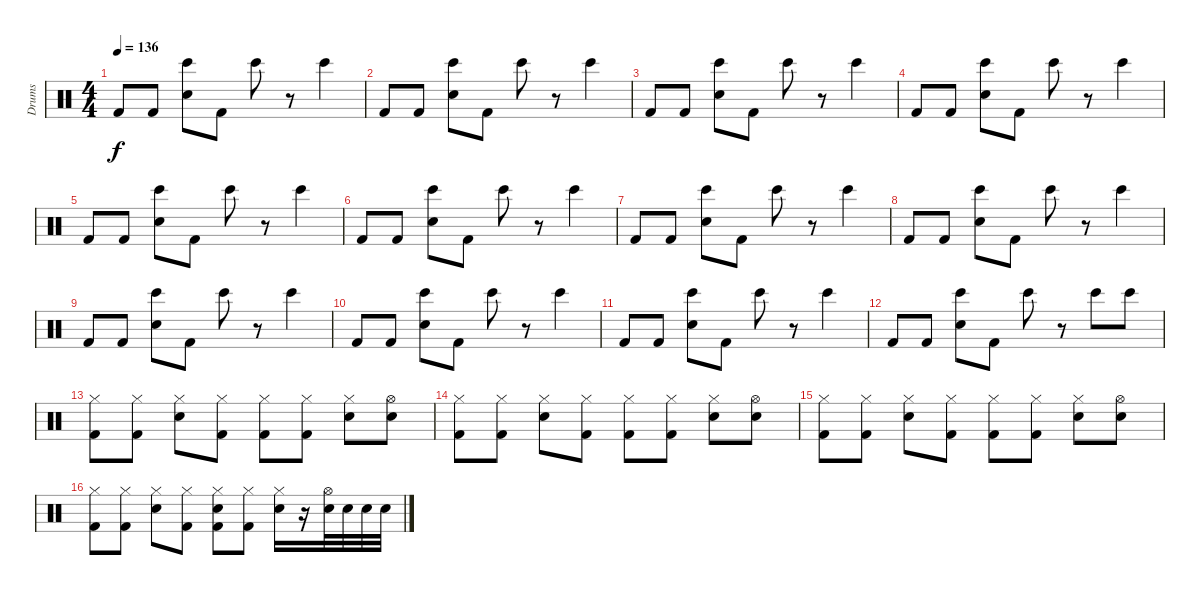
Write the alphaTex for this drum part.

\track ("Drums" "Drums") {instrument percussion}
\staff {score}
\articulation defaults
\ts (4 4)
\tempo 136
\clef neutral
\ks c "Kick (hit) 2".8{dy f} "Kick (hit) 2".8
("Bongo High (hit)" "Electric Snare (hit)").8 "Kick (hit) 2".8 "Bongo High (hit)".8 r.8 "Bongo High (hit)".4 |
"Kick (hit) 2".8 "Kick (hit) 2".8 ("Bongo High (hit)" "Electric Snare (hit)").8 "Kick (hit) 2".8 "Bongo High (hit)".8 r.8 "Bongo High (hit)".4 |
"Kick (hit) 2".8 "Kick (hit) 2".8 ("Bongo High (hit)" "Electric Snare (hit)").8 "Kick (hit) 2".8 "Bongo High (hit)".8 r.8 "Bongo High (hit)".4 |
"Kick (hit) 2".8 "Kick (hit) 2".8 ("Bongo High (hit)" "Electric Snare (hit)").8 "Kick (hit) 2".8 "Bongo High (hit)".8 r.8 "Bongo High (hit)".4 |
"Kick (hit) 2".8 "Kick (hit) 2".8 ("Bongo High (hit)" "Electric Snare (hit)").8 "Kick (hit) 2".8 "Bongo High (hit)".8 r.8 "Bongo High (hit)".4 |
"Kick (hit) 2".8 "Kick (hit) 2".8 ("Bongo High (hit)" "Electric Snare (hit)").8 "Kick (hit) 2".8 "Bongo High (hit)".8 r.8 "Bongo High (hit)".4 |
"Kick (hit) 2".8 "Kick (hit) 2".8 ("Bongo High (hit)" "Electric Snare (hit)").8 "Kick (hit) 2".8 "Bongo High (hit)".8 r.8 "Bongo High (hit)".4 |
"Kick (hit) 2".8 "Kick (hit) 2".8 ("Bongo High (hit)" "Electric Snare (hit)").8 "Kick (hit) 2".8 "Bongo High (hit)".8 r.8 "Bongo High (hit)".4 |
"Kick (hit) 2".8 "Kick (hit) 2".8 ("Bongo High (hit)" "Electric Snare (hit)").8 "Kick (hit) 2".8 "Bongo High (hit)".8 r.8 "Bongo High (hit)".4 |
"Kick (hit) 2".8 "Kick (hit) 2".8 ("Bongo High (hit)" "Electric Snare (hit)").8 "Kick (hit) 2".8 "Bongo High (hit)".8 r.8 "Bongo High (hit)".4 |
"Kick (hit) 2".8 "Kick (hit) 2".8 ("Bongo High (hit)" "Electric Snare (hit)").8 "Kick (hit) 2".8 "Bongo High (hit)".8 r.8 "Bongo High (hit)".4 |
"Kick (hit) 2".8 "Kick (hit) 2".8 ("Bongo High (hit)" "Electric Snare (hit)").8 "Kick (hit) 2".8 "Bongo High (hit)".8 r.8 "Bongo High (hit)".8 "Bongo High (hit)".8 |
("Hi-Hat (closed)" "Kick (hit) 2").8 ("Hi-Hat (closed)" "Kick (hit) 2").8 ("Hi-Hat (closed)" "Electric Snare (hit)").8 ("Hi-Hat (closed)" "Kick (hit) 2").8 ("Hi-Hat (closed)" "Kick (hit) 2").8 ("Hi-Hat (closed)" "Kick (hit) 2").8 ("Hi-Hat (closed)" "Electric Snare (hit)").8 ("Hi-Hat (open)" "Electric Snare (hit)").8 |
("Hi-Hat (closed)" "Kick (hit) 2").8 ("Hi-Hat (closed)" "Kick (hit) 2").8 ("Hi-Hat (closed)" "Electric Snare (hit)").8 ("Hi-Hat (closed)" "Kick (hit) 2").8 ("Hi-Hat (closed)" "Kick (hit) 2").8 ("Hi-Hat (closed)" "Kick (hit) 2").8 ("Hi-Hat (closed)" "Electric Snare (hit)").8 ("Hi-Hat (open)" "Electric Snare (hit)").8 |
("Hi-Hat (closed)" "Kick (hit) 2").8 ("Hi-Hat (closed)" "Kick (hit) 2").8 ("Hi-Hat (closed)" "Electric Snare (hit)").8 ("Hi-Hat (closed)" "Kick (hit) 2").8 ("Hi-Hat (closed)" "Kick (hit) 2").8 ("Hi-Hat (closed)" "Kick (hit) 2").8 ("Hi-Hat (closed)" "Electric Snare (hit)").8 ("Hi-Hat (open)" "Electric Snare (hit)").8 |
("Hi-Hat (closed)" "Kick (hit) 2").8 ("Hi-Hat (closed)" "Kick (hit) 2").8 ("Hi-Hat (closed)" "Electric Snare (hit)").8 ("Hi-Hat (closed)" "Kick (hit) 2").8 ("Hi-Hat (closed)" "Electric Snare (hit)" "Kick (hit) 2").8 ("Hi-Hat (closed)" "Kick (hit) 2").8 ("Hi-Hat (closed)" "Electric Snare (hit)").16 r.16 ("Hi-Hat (open)" "Electric Snare (hit)").32 "Electric Snare (hit)".32 "Electric Snare (hit)".32 "Electric Snare (hit)".32
